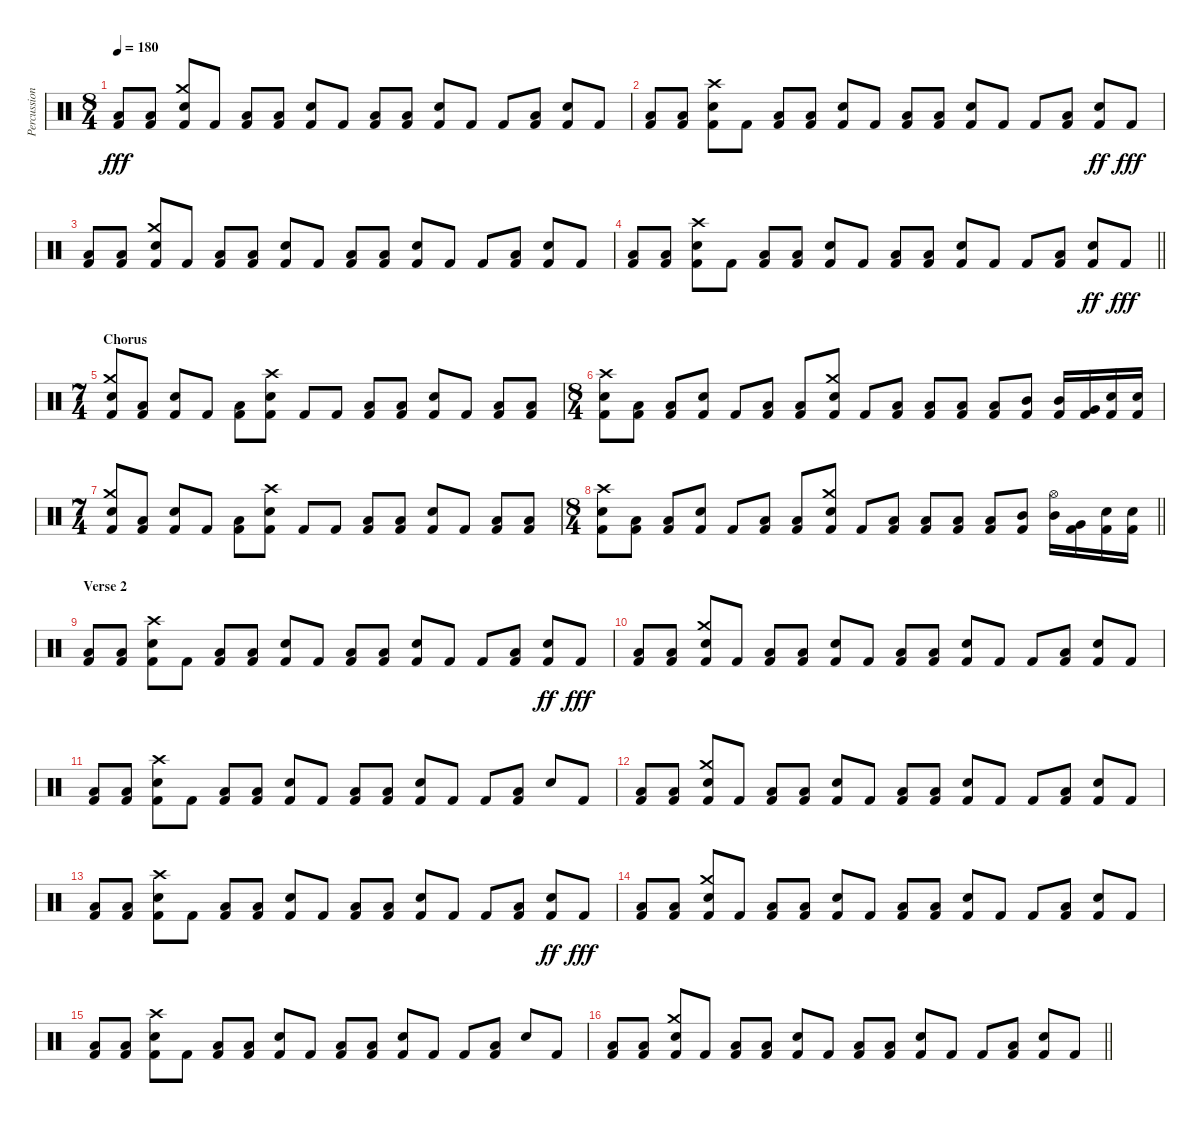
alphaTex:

\track ("Percussion" "Percussion") {instrument percussion}
\staff {score}
\articulation defaults
\ts (8 4)
\tempo 180
\clef neutral
\ks c
("Low Floor Tom (hit)" "Kick (hit) 2").8{dy fff} ("Low Floor Tom (hit)" "Kick (hit) 2").8 ("Crash medium (hit)" "Electric Snare (hit)" "Kick (hit) 2").8 "Kick (hit) 2".8 ("Low Floor Tom (hit)" "Kick (hit) 2").8 ("Low Floor Tom (hit)" "Kick (hit) 2").8 ("Electric Snare (hit)" "Kick (hit) 2").8 "Kick (hit) 2".8 ("Low Floor Tom (hit)" "Kick (hit) 2").8 ("Low Floor Tom (hit)" "Kick (hit) 2").8 ("Electric Snare (hit)" "Kick (hit) 2").8 "Kick (hit) 2".8 "Kick (hit) 2".8 ("Low Floor Tom (hit)" "Kick (hit) 2").8 ("Electric Snare (hit)" "Kick (hit) 2").8 "Kick (hit) 2".8 |
("Low Floor Tom (hit)" "Kick (hit) 2").8 ("Low Floor Tom (hit)" "Kick (hit) 2").8 ("Crash high (hit)" "Electric Snare (hit)" "Kick (hit) 2").8 "Kick (hit) 2".8 ("Low Floor Tom (hit)" "Kick (hit) 2").8 ("Low Floor Tom (hit)" "Kick (hit) 2").8 ("Electric Snare (hit)" "Kick (hit) 2").8 "Kick (hit) 2".8 ("Low Floor Tom (hit)" "Kick (hit) 2").8 ("Low Floor Tom (hit)" "Kick (hit) 2").8 ("Electric Snare (hit)" "Kick (hit) 2").8 "Kick (hit) 2".8 "Kick (hit) 2".8 ("Low Floor Tom (hit)" "Kick (hit) 2").8 ("Electric Snare (hit)" "Kick (hit) 2").8{dy ff} "Kick (hit) 2".8{dy fff} |
("Low Floor Tom (hit)" "Kick (hit) 2").8 ("Low Floor Tom (hit)" "Kick (hit) 2").8 ("Crash medium (hit)" "Electric Snare (hit)" "Kick (hit) 2").8 "Kick (hit) 2".8 ("Low Floor Tom (hit)" "Kick (hit) 2").8 ("Low Floor Tom (hit)" "Kick (hit) 2").8 ("Electric Snare (hit)" "Kick (hit) 2").8 "Kick (hit) 2".8 ("Low Floor Tom (hit)" "Kick (hit) 2").8 ("Low Floor Tom (hit)" "Kick (hit) 2").8 ("Electric Snare (hit)" "Kick (hit) 2").8 "Kick (hit) 2".8 "Kick (hit) 2".8 ("Low Floor Tom (hit)" "Kick (hit) 2").8 ("Electric Snare (hit)" "Kick (hit) 2").8 "Kick (hit) 2".8 |
\barLineRight lightlight
("Low Floor Tom (hit)" "Kick (hit) 2").8 ("Low Floor Tom (hit)" "Kick (hit) 2").8 ("Crash high (hit)" "Electric Snare (hit)" "Kick (hit) 2").8 "Kick (hit) 2".8 ("Low Floor Tom (hit)" "Kick (hit) 2").8 ("Low Floor Tom (hit)" "Kick (hit) 2").8 ("Electric Snare (hit)" "Kick (hit) 2").8 "Kick (hit) 2".8 ("Low Floor Tom (hit)" "Kick (hit) 2").8 ("Low Floor Tom (hit)" "Kick (hit) 2").8 ("Electric Snare (hit)" "Kick (hit) 2").8 "Kick (hit) 2".8 "Kick (hit) 2".8 ("Low Floor Tom (hit)" "Kick (hit) 2").8 ("Electric Snare (hit)" "Kick (hit) 2").8{dy ff} "Kick (hit) 2".8{dy fff} |
\ts (7 4)
\section ("" "Chorus")
("Crash medium (hit)" "Electric Snare (hit)" "Kick (hit) 2").8 ("Low Floor Tom (hit)" "Kick (hit) 2").8 ("Electric Snare (hit)" "Kick (hit) 2").8 "Kick (hit) 2".8 ("Low Floor Tom (hit)" "Kick (hit) 2").8 ("Crash high (hit)" "Electric Snare (hit)" "Kick (hit) 2").8 "Kick (hit) 2".8 "Kick (hit) 2".8 ("Low Floor Tom (hit)" "Kick (hit) 2").8 ("Low Floor Tom (hit)" "Kick (hit) 2").8 ("Electric Snare (hit)" "Kick (hit) 2").8 "Kick (hit) 2".8 ("Low Floor Tom (hit)" "Kick (hit) 2").8 ("Low Floor Tom (hit)" "Kick (hit) 2").8 |
\ts (8 4)
("Crash high (hit)" "Electric Snare (hit)" "Kick (hit) 2").8 ("Low Floor Tom (hit)" "Kick (hit) 2").8 ("Low Floor Tom (hit)" "Kick (hit) 2").8 ("Electric Snare (hit)" "Kick (hit) 2").8 "Kick (hit) 2".8 ("Low Floor Tom (hit)" "Kick (hit) 2").8 ("Low Floor Tom (hit)" "Kick (hit) 2").8 ("Crash medium (hit)" "Electric Snare (hit)" "Kick (hit) 2").8 "Kick (hit) 2".8 ("Low Floor Tom (hit)" "Kick (hit) 2").8 ("Low Floor Tom (hit)" "Kick (hit) 2").8 ("Low Tom (hit)" "Kick (hit) 2").8 ("Low Tom (hit)" "Kick (hit) 2").8 ("Mid Tom (hit)" "Kick (hit) 2").8 ("Mid Tom (hit)" "Kick (hit) 2").16 ("Very Low Tom (hit)" "Kick (hit) 2").16 ("Electric Snare (hit)" "Kick (hit) 2").16 ("Electric Snare (hit)" "Kick (hit) 2").16 |
\ts (7 4)
("Crash medium (hit)" "Electric Snare (hit)" "Kick (hit) 2").8 ("Low Floor Tom (hit)" "Kick (hit) 2").8 ("Electric Snare (hit)" "Kick (hit) 2").8 "Kick (hit) 2".8 ("Low Floor Tom (hit)" "Kick (hit) 2").8 ("Crash high (hit)" "Electric Snare (hit)" "Kick (hit) 2").8 "Kick (hit) 2".8 "Kick (hit) 2".8 ("Low Floor Tom (hit)" "Kick (hit) 2").8 ("Low Floor Tom (hit)" "Kick (hit) 2").8 ("Electric Snare (hit)" "Kick (hit) 2").8 "Kick (hit) 2".8 ("Low Floor Tom (hit)" "Kick (hit) 2").8 ("Low Floor Tom (hit)" "Kick (hit) 2").8 |
\ts (8 4)
\barLineRight lightlight
("Crash high (hit)" "Electric Snare (hit)" "Kick (hit) 2").8 ("Low Floor Tom (hit)" "Kick (hit) 2").8 ("Low Floor Tom (hit)" "Kick (hit) 2").8 ("Electric Snare (hit)" "Kick (hit) 2").8 "Kick (hit) 2".8 ("Low Floor Tom (hit)" "Kick (hit) 2").8 ("Low Floor Tom (hit)" "Kick (hit) 2").8 ("Crash medium (hit)" "Electric Snare (hit)" "Kick (hit) 2").8 "Kick (hit) 2".8 ("Low Floor Tom (hit)" "Kick (hit) 2").8 ("Low Floor Tom (hit)" "Kick (hit) 2").8 ("Low Tom (hit)" "Kick (hit) 2").8 ("Low Tom (hit)" "Kick (hit) 2").8 ("Mid Tom (hit)" "Kick (hit) 2").8 ("Mid Tom (hit)" "Hi-Hat (open)").16 ("Very Low Tom (hit)" "Kick (hit) 2").16 ("Electric Snare (hit)" "Kick (hit) 2").16 ("Electric Snare (hit)" "Kick (hit) 2").16 |
\section ("" "Verse 2")
("Low Floor Tom (hit)" "Kick (hit) 2").8 ("Low Floor Tom (hit)" "Kick (hit) 2").8 ("Crash high (hit)" "Electric Snare (hit)" "Kick (hit) 2").8 "Kick (hit) 2".8 ("Low Floor Tom (hit)" "Kick (hit) 2").8 ("Low Floor Tom (hit)" "Kick (hit) 2").8 ("Electric Snare (hit)" "Kick (hit) 2").8 "Kick (hit) 2".8 ("Low Floor Tom (hit)" "Kick (hit) 2").8 ("Low Floor Tom (hit)" "Kick (hit) 2").8 ("Electric Snare (hit)" "Kick (hit) 2").8 "Kick (hit) 2".8 "Kick (hit) 2".8 ("Low Floor Tom (hit)" "Kick (hit) 2").8 ("Electric Snare (hit)" "Kick (hit) 2").8{dy ff} "Kick (hit) 2".8{dy fff} |
("Low Floor Tom (hit)" "Kick (hit) 2").8 ("Low Floor Tom (hit)" "Kick (hit) 2").8 ("Crash medium (hit)" "Electric Snare (hit)" "Kick (hit) 2").8 "Kick (hit) 2".8 ("Low Floor Tom (hit)" "Kick (hit) 2").8 ("Low Floor Tom (hit)" "Kick (hit) 2").8 ("Electric Snare (hit)" "Kick (hit) 2").8 "Kick (hit) 2".8 ("Low Floor Tom (hit)" "Kick (hit) 2").8 ("Low Floor Tom (hit)" "Kick (hit) 2").8 ("Electric Snare (hit)" "Kick (hit) 2").8 "Kick (hit) 2".8 "Kick (hit) 2".8 ("Low Floor Tom (hit)" "Kick (hit) 2").8 ("Electric Snare (hit)" "Kick (hit) 2").8 "Kick (hit) 2".8 |
("Low Floor Tom (hit)" "Kick (hit) 2").8 ("Low Floor Tom (hit)" "Kick (hit) 2").8 ("Crash high (hit)" "Electric Snare (hit)" "Kick (hit) 2").8 "Kick (hit) 2".8 ("Low Floor Tom (hit)" "Kick (hit) 2").8 ("Low Floor Tom (hit)" "Kick (hit) 2").8 ("Electric Snare (hit)" "Kick (hit) 2").8 "Kick (hit) 2".8 ("Low Floor Tom (hit)" "Kick (hit) 2").8 ("Low Floor Tom (hit)" "Kick (hit) 2").8 ("Electric Snare (hit)" "Kick (hit) 2").8 "Kick (hit) 2".8 "Kick (hit) 2".8 ("Low Floor Tom (hit)" "Kick (hit) 2").8 "Electric Snare (hit)".8 "Kick (hit) 2".8 |
("Low Floor Tom (hit)" "Kick (hit) 2").8 ("Low Floor Tom (hit)" "Kick (hit) 2").8 ("Crash medium (hit)" "Electric Snare (hit)" "Kick (hit) 2").8 "Kick (hit) 2".8 ("Low Floor Tom (hit)" "Kick (hit) 2").8 ("Low Floor Tom (hit)" "Kick (hit) 2").8 ("Electric Snare (hit)" "Kick (hit) 2").8 "Kick (hit) 2".8 ("Low Floor Tom (hit)" "Kick (hit) 2").8 ("Low Floor Tom (hit)" "Kick (hit) 2").8 ("Electric Snare (hit)" "Kick (hit) 2").8 "Kick (hit) 2".8 "Kick (hit) 2".8 ("Low Floor Tom (hit)" "Kick (hit) 2").8 ("Electric Snare (hit)" "Kick (hit) 2").8 "Kick (hit) 2".8 |
("Low Floor Tom (hit)" "Kick (hit) 2").8 ("Low Floor Tom (hit)" "Kick (hit) 2").8 ("Crash high (hit)" "Electric Snare (hit)" "Kick (hit) 2").8 "Kick (hit) 2".8 ("Low Floor Tom (hit)" "Kick (hit) 2").8 ("Low Floor Tom (hit)" "Kick (hit) 2").8 ("Electric Snare (hit)" "Kick (hit) 2").8 "Kick (hit) 2".8 ("Low Floor Tom (hit)" "Kick (hit) 2").8 ("Low Floor Tom (hit)" "Kick (hit) 2").8 ("Electric Snare (hit)" "Kick (hit) 2").8 "Kick (hit) 2".8 "Kick (hit) 2".8 ("Low Floor Tom (hit)" "Kick (hit) 2").8 ("Electric Snare (hit)" "Kick (hit) 2").8{dy ff} "Kick (hit) 2".8{dy fff} |
("Low Floor Tom (hit)" "Kick (hit) 2").8 ("Low Floor Tom (hit)" "Kick (hit) 2").8 ("Crash medium (hit)" "Electric Snare (hit)" "Kick (hit) 2").8 "Kick (hit) 2".8 ("Low Floor Tom (hit)" "Kick (hit) 2").8 ("Low Floor Tom (hit)" "Kick (hit) 2").8 ("Electric Snare (hit)" "Kick (hit) 2").8 "Kick (hit) 2".8 ("Low Floor Tom (hit)" "Kick (hit) 2").8 ("Low Floor Tom (hit)" "Kick (hit) 2").8 ("Electric Snare (hit)" "Kick (hit) 2").8 "Kick (hit) 2".8 "Kick (hit) 2".8 ("Low Floor Tom (hit)" "Kick (hit) 2").8 ("Electric Snare (hit)" "Kick (hit) 2").8 "Kick (hit) 2".8 |
("Low Floor Tom (hit)" "Kick (hit) 2").8 ("Low Floor Tom (hit)" "Kick (hit) 2").8 ("Crash high (hit)" "Electric Snare (hit)" "Kick (hit) 2").8 "Kick (hit) 2".8 ("Low Floor Tom (hit)" "Kick (hit) 2").8 ("Low Floor Tom (hit)" "Kick (hit) 2").8 ("Electric Snare (hit)" "Kick (hit) 2").8 "Kick (hit) 2".8 ("Low Floor Tom (hit)" "Kick (hit) 2").8 ("Low Floor Tom (hit)" "Kick (hit) 2").8 ("Electric Snare (hit)" "Kick (hit) 2").8 "Kick (hit) 2".8 "Kick (hit) 2".8 ("Low Floor Tom (hit)" "Kick (hit) 2").8 "Electric Snare (hit)".8 "Kick (hit) 2".8 |
\barLineRight lightlight
("Low Floor Tom (hit)" "Kick (hit) 2").8 ("Low Floor Tom (hit)" "Kick (hit) 2").8 ("Crash medium (hit)" "Electric Snare (hit)" "Kick (hit) 2").8 "Kick (hit) 2".8 ("Low Floor Tom (hit)" "Kick (hit) 2").8 ("Low Floor Tom (hit)" "Kick (hit) 2").8 ("Electric Snare (hit)" "Kick (hit) 2").8 "Kick (hit) 2".8 ("Low Floor Tom (hit)" "Kick (hit) 2").8 ("Low Floor Tom (hit)" "Kick (hit) 2").8 ("Electric Snare (hit)" "Kick (hit) 2").8 "Kick (hit) 2".8 "Kick (hit) 2".8 ("Low Floor Tom (hit)" "Kick (hit) 2").8 ("Electric Snare (hit)" "Kick (hit) 2").8 "Kick (hit) 2".8
